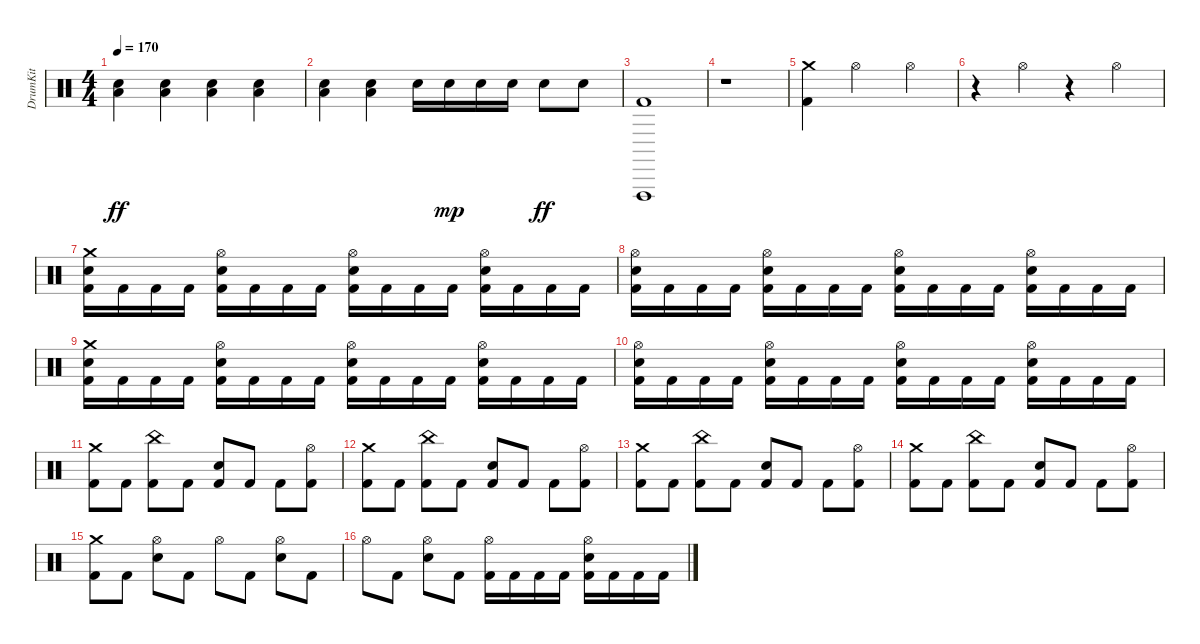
\track ("DrumKit" "DrumKit") {instrument percussion}
\staff {score}
\articulation defaults
\ts (4 4)
\tempo 170
\clef neutral
\ks c
("Snare (hit) 2" "Low Floor Tom (hit)").4{dy ff} ("Snare (hit) 2" "Low Floor Tom (hit)").4 ("Snare (hit) 2" "Low Floor Tom (hit)").4 ("Snare (hit) 2" "Low Floor Tom (hit)").4 |
("Snare (hit) 2" "Low Floor Tom (hit)").4 ("Snare (hit) 2" "Low Floor Tom (hit)").4 "Snare (hit) 2".16 "Snare (hit) 2".16{dy mp} "Snare (hit) 2".16 "Snare (hit) 2".16 "Snare (hit) 2".8{dy ff} "Snare (hit) 2".8 |
("Kick (hit) 2" "Vibraslap (hit)").1 |
r.1 |
("Kick (hit) 2" "Crash medium (hit)").4 "Hi-Hat (open)".2 "Hi-Hat (open)".4 |
r.4 "Hi-Hat (open)".4 r.4 "Hi-Hat (open)".4 |
("Kick (hit) 2" "Snare (hit) 2" "Crash medium (hit)").16 "Kick (hit) 2".16 "Kick (hit) 2".16 "Kick (hit) 2".16 ("Kick (hit) 2" "Snare (hit) 2" "Hi-Hat (open)").16 "Kick (hit) 2".16 "Kick (hit) 2".16 "Kick (hit) 2".16 ("Kick (hit) 2" "Snare (hit) 2" "Hi-Hat (open)").16 "Kick (hit) 2".16 "Kick (hit) 2".16 "Kick (hit) 2".16 ("Kick (hit) 2" "Snare (hit) 2" "Hi-Hat (open)").16 "Kick (hit) 2".16 "Kick (hit) 2".16 "Kick (hit) 2".16 |
("Kick (hit) 2" "Snare (hit) 2" "Hi-Hat (open)").16 "Kick (hit) 2".16 "Kick (hit) 2".16 "Kick (hit) 2".16 ("Kick (hit) 2" "Snare (hit) 2" "Hi-Hat (open)").16 "Kick (hit) 2".16 "Kick (hit) 2".16 "Kick (hit) 2".16 ("Kick (hit) 2" "Snare (hit) 2" "Hi-Hat (open)").16 "Kick (hit) 2".16 "Kick (hit) 2".16 "Kick (hit) 2".16 ("Kick (hit) 2" "Snare (hit) 2" "Hi-Hat (open)").16 "Kick (hit) 2".16 "Kick (hit) 2".16 "Kick (hit) 2".16 |
("Kick (hit) 2" "Snare (hit) 2" "Crash medium (hit)").16 "Kick (hit) 2".16 "Kick (hit) 2".16 "Kick (hit) 2".16 ("Kick (hit) 2" "Snare (hit) 2" "Hi-Hat (open)").16 "Kick (hit) 2".16 "Kick (hit) 2".16 "Kick (hit) 2".16 ("Kick (hit) 2" "Snare (hit) 2" "Hi-Hat (open)").16 "Kick (hit) 2".16 "Kick (hit) 2".16 "Kick (hit) 2".16 ("Kick (hit) 2" "Snare (hit) 2" "Hi-Hat (open)").16 "Kick (hit) 2".16 "Kick (hit) 2".16 "Kick (hit) 2".16 |
("Kick (hit) 2" "Snare (hit) 2" "Hi-Hat (open)").16 "Kick (hit) 2".16 "Kick (hit) 2".16 "Kick (hit) 2".16 ("Kick (hit) 2" "Snare (hit) 2" "Hi-Hat (open)").16 "Kick (hit) 2".16 "Kick (hit) 2".16 "Kick (hit) 2".16 ("Kick (hit) 2" "Snare (hit) 2" "Hi-Hat (open)").16 "Kick (hit) 2".16 "Kick (hit) 2".16 "Kick (hit) 2".16 ("Kick (hit) 2" "Snare (hit) 2" "Hi-Hat (open)").16 "Kick (hit) 2".16 "Kick (hit) 2".16 "Kick (hit) 2".16 |
("Kick (hit) 2" "Crash medium (hit)").8 "Kick (hit) 2".8 ("Kick (hit) 2" "China (hit)").8 "Kick (hit) 2".8 ("Kick (hit) 2" "Snare (hit) 2").8 "Kick (hit) 2".8 "Kick (hit) 2".8 ("Kick (hit) 2" "Hi-Hat (open)").8 |
("Kick (hit) 2" "Crash medium (hit)").8 "Kick (hit) 2".8 ("Kick (hit) 2" "China (hit)").8 "Kick (hit) 2".8 ("Kick (hit) 2" "Snare (hit) 2").8 "Kick (hit) 2".8 "Kick (hit) 2".8 ("Kick (hit) 2" "Hi-Hat (open)").8 |
("Kick (hit) 2" "Crash medium (hit)").8 "Kick (hit) 2".8 ("Kick (hit) 2" "China (hit)").8 "Kick (hit) 2".8 ("Kick (hit) 2" "Snare (hit) 2").8 "Kick (hit) 2".8 "Kick (hit) 2".8 ("Kick (hit) 2" "Hi-Hat (open)").8 |
("Kick (hit) 2" "Crash medium (hit)").8 "Kick (hit) 2".8 ("Kick (hit) 2" "China (hit)").8 "Kick (hit) 2".8 ("Kick (hit) 2" "Snare (hit) 2").8 "Kick (hit) 2".8 "Kick (hit) 2".8 ("Kick (hit) 2" "Hi-Hat (open)").8 |
("Kick (hit) 2" "Crash medium (hit)").8 "Kick (hit) 2".8 ("Snare (hit) 2" "Hi-Hat (open)").8 "Kick (hit) 2".8 "Hi-Hat (open)".8 "Kick (hit) 2".8 ("Snare (hit) 2" "Hi-Hat (open)").8 "Kick (hit) 2".8 |
"Hi-Hat (open)".8 "Kick (hit) 2".8 ("Snare (hit) 2" "Hi-Hat (open)").8 "Kick (hit) 2".8 ("Kick (hit) 2" "Hi-Hat (open)").16 "Kick (hit) 2".16 "Kick (hit) 2".16 "Kick (hit) 2".16 ("Kick (hit) 2" "Snare (hit) 2" "Hi-Hat (open)").16 "Kick (hit) 2".16 "Kick (hit) 2".16 "Kick (hit) 2".16
